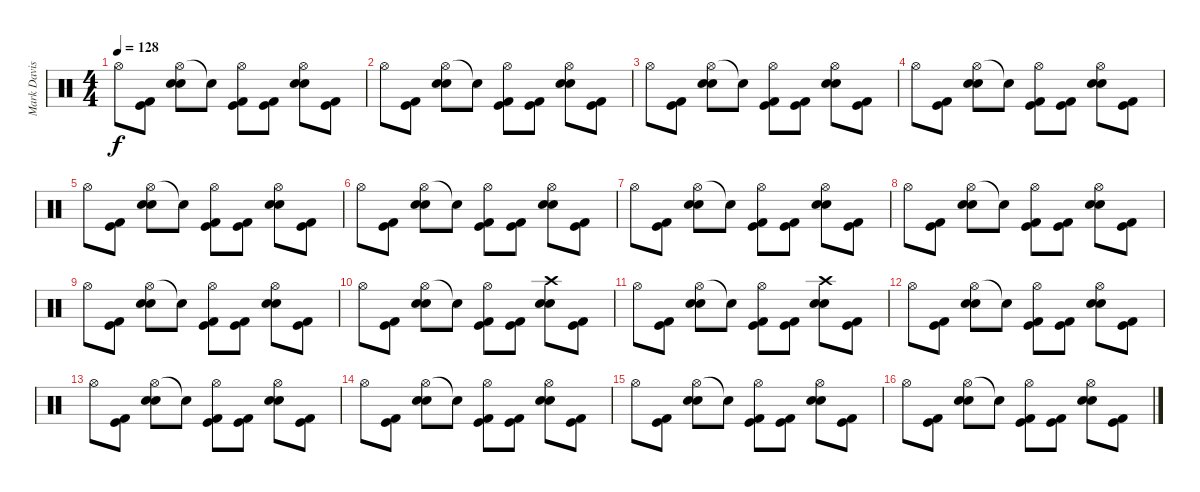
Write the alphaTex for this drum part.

\track ("Mark Davis (drums)" "Mark Davis") {instrument percussion}
\staff {score}
\articulation defaults
\ts (4 4)
\tempo 128
\clef neutral
\ks c "Hi-Hat (open)".8{dy f}
("Kick (hit)" "Kick (hit) 2").8 ("Hi-Hat (open)" "Snare (hit) 2" "Electric Snare (hit)").8 "Snare (hit)"{t}.8 ("Hi-Hat (open)" "Kick (hit)" "Kick (hit) 2").8 ("Kick (hit)" "Kick (hit) 2").8 ("Hi-Hat (open)" "Snare (hit) 2" "Electric Snare (hit)").8 ("Kick (hit)" "Kick (hit) 2").8 |
"Hi-Hat (open)".8 ("Kick (hit)" "Kick (hit) 2").8 ("Hi-Hat (open)" "Snare (hit) 2" "Electric Snare (hit)").8 "Snare (hit)"{t}.8 ("Hi-Hat (open)" "Kick (hit)" "Kick (hit) 2").8 ("Kick (hit)" "Kick (hit) 2").8 ("Hi-Hat (open)" "Snare (hit) 2" "Electric Snare (hit)").8 ("Kick (hit)" "Kick (hit) 2").8 |
"Hi-Hat (open)".8 ("Kick (hit)" "Kick (hit) 2").8 ("Hi-Hat (open)" "Snare (hit) 2" "Electric Snare (hit)").8 "Snare (hit)"{t}.8 ("Hi-Hat (open)" "Kick (hit)" "Kick (hit) 2").8 ("Kick (hit)" "Kick (hit) 2").8 ("Hi-Hat (open)" "Snare (hit) 2" "Electric Snare (hit)").8 ("Kick (hit)" "Kick (hit) 2").8 |
"Hi-Hat (open)".8 ("Kick (hit)" "Kick (hit) 2").8 ("Hi-Hat (open)" "Snare (hit) 2" "Electric Snare (hit)").8 "Snare (hit)"{t}.8 ("Hi-Hat (open)" "Kick (hit)" "Kick (hit) 2").8 ("Kick (hit)" "Kick (hit) 2").8 ("Hi-Hat (open)" "Snare (hit) 2" "Electric Snare (hit)").8 ("Kick (hit)" "Kick (hit) 2").8 |
"Hi-Hat (open)".8 ("Kick (hit)" "Kick (hit) 2").8 ("Hi-Hat (open)" "Snare (hit) 2" "Electric Snare (hit)").8 "Snare (hit)"{t}.8 ("Hi-Hat (open)" "Kick (hit)" "Kick (hit) 2").8 ("Kick (hit)" "Kick (hit) 2").8 ("Hi-Hat (open)" "Snare (hit) 2" "Electric Snare (hit)").8 ("Kick (hit)" "Kick (hit) 2").8 |
"Hi-Hat (open)".8 ("Kick (hit)" "Kick (hit) 2").8 ("Hi-Hat (open)" "Snare (hit) 2" "Electric Snare (hit)").8 "Snare (hit)"{t}.8 ("Hi-Hat (open)" "Kick (hit)" "Kick (hit) 2").8 ("Kick (hit)" "Kick (hit) 2").8 ("Hi-Hat (open)" "Snare (hit) 2" "Electric Snare (hit)").8 ("Kick (hit)" "Kick (hit) 2").8 |
"Hi-Hat (open)".8 ("Kick (hit)" "Kick (hit) 2").8 ("Hi-Hat (open)" "Snare (hit) 2" "Electric Snare (hit)").8 "Snare (hit)"{t}.8 ("Hi-Hat (open)" "Kick (hit)" "Kick (hit) 2").8 ("Kick (hit)" "Kick (hit) 2").8 ("Hi-Hat (open)" "Snare (hit) 2" "Electric Snare (hit)").8 ("Kick (hit)" "Kick (hit) 2").8 |
"Hi-Hat (open)".8 ("Kick (hit)" "Kick (hit) 2").8 ("Hi-Hat (open)" "Snare (hit) 2" "Electric Snare (hit)").8 "Snare (hit)"{t}.8 ("Hi-Hat (open)" "Kick (hit)" "Kick (hit) 2").8 ("Kick (hit)" "Kick (hit) 2").8 ("Hi-Hat (open)" "Snare (hit) 2" "Electric Snare (hit)").8 ("Kick (hit)" "Kick (hit) 2").8 |
"Hi-Hat (open)".8 ("Kick (hit)" "Kick (hit) 2").8 ("Hi-Hat (open)" "Snare (hit) 2" "Electric Snare (hit)").8 "Snare (hit)"{t}.8 ("Hi-Hat (open)" "Kick (hit)" "Kick (hit) 2").8 ("Kick (hit)" "Kick (hit) 2").8 ("Hi-Hat (open)" "Snare (hit) 2" "Electric Snare (hit)").8 ("Kick (hit)" "Kick (hit) 2").8 |
"Hi-Hat (open)".8 ("Kick (hit)" "Kick (hit) 2").8 ("Hi-Hat (open)" "Snare (hit) 2" "Electric Snare (hit)").8 "Snare (hit)"{t}.8 ("Hi-Hat (open)" "Kick (hit)" "Kick (hit) 2").8 ("Kick (hit)" "Kick (hit) 2").8 ("Crash high (hit)" "Snare (hit) 2" "Electric Snare (hit)").8 ("Kick (hit)" "Kick (hit) 2").8 |
"Hi-Hat (open)".8 ("Kick (hit)" "Kick (hit) 2").8 ("Hi-Hat (open)" "Snare (hit) 2" "Electric Snare (hit)").8 "Snare (hit)"{t}.8 ("Hi-Hat (open)" "Kick (hit)" "Kick (hit) 2").8 ("Kick (hit)" "Kick (hit) 2").8 ("Crash high (hit)" "Snare (hit) 2" "Electric Snare (hit)").8 ("Kick (hit)" "Kick (hit) 2").8 |
"Hi-Hat (open)".8 ("Kick (hit)" "Kick (hit) 2").8 ("Hi-Hat (open)" "Snare (hit) 2" "Electric Snare (hit)").8 "Snare (hit)"{t}.8 ("Hi-Hat (open)" "Kick (hit)" "Kick (hit) 2").8 ("Kick (hit)" "Kick (hit) 2").8 ("Hi-Hat (open)" "Snare (hit) 2" "Electric Snare (hit)").8 ("Kick (hit)" "Kick (hit) 2").8 |
"Hi-Hat (open)".8 ("Kick (hit)" "Kick (hit) 2").8 ("Hi-Hat (open)" "Snare (hit) 2" "Electric Snare (hit)").8 "Snare (hit)"{t}.8 ("Hi-Hat (open)" "Kick (hit)" "Kick (hit) 2").8 ("Kick (hit)" "Kick (hit) 2").8 ("Hi-Hat (open)" "Snare (hit) 2" "Electric Snare (hit)").8 ("Kick (hit)" "Kick (hit) 2").8 |
"Hi-Hat (open)".8 ("Kick (hit)" "Kick (hit) 2").8 ("Hi-Hat (open)" "Snare (hit) 2" "Electric Snare (hit)").8 "Snare (hit)"{t}.8 ("Hi-Hat (open)" "Kick (hit)" "Kick (hit) 2").8 ("Kick (hit)" "Kick (hit) 2").8 ("Hi-Hat (open)" "Snare (hit) 2" "Electric Snare (hit)").8 ("Kick (hit)" "Kick (hit) 2").8 |
"Hi-Hat (open)".8 ("Kick (hit)" "Kick (hit) 2").8 ("Hi-Hat (open)" "Snare (hit) 2" "Electric Snare (hit)").8 "Snare (hit)"{t}.8 ("Hi-Hat (open)" "Kick (hit)" "Kick (hit) 2").8 ("Kick (hit)" "Kick (hit) 2").8 ("Hi-Hat (open)" "Snare (hit) 2" "Electric Snare (hit)").8 ("Kick (hit)" "Kick (hit) 2").8 |
"Hi-Hat (open)".8 ("Kick (hit)" "Kick (hit) 2").8 ("Hi-Hat (open)" "Snare (hit) 2" "Electric Snare (hit)").8 "Snare (hit)"{t}.8 ("Hi-Hat (open)" "Kick (hit)" "Kick (hit) 2").8 ("Kick (hit)" "Kick (hit) 2").8 ("Hi-Hat (open)" "Snare (hit) 2" "Electric Snare (hit)").8 ("Kick (hit)" "Kick (hit) 2").8
